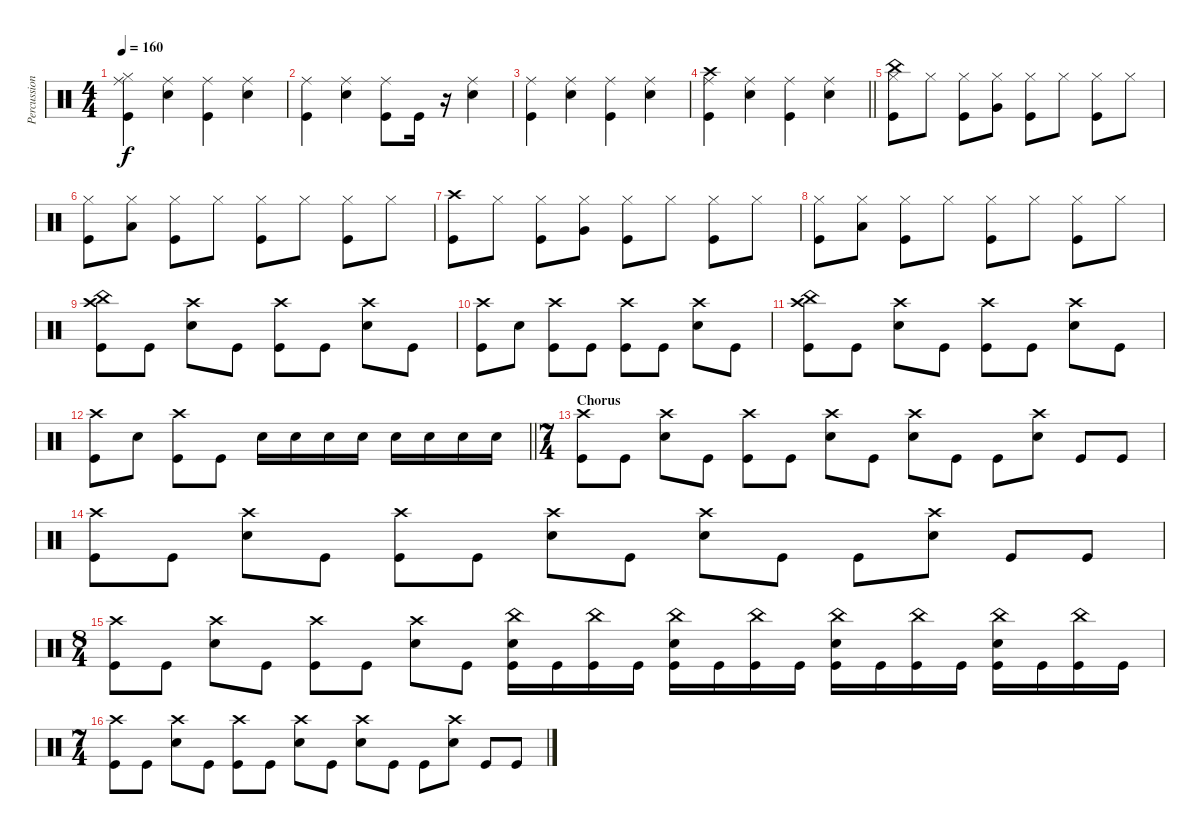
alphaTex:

\track ("Percussion" "Percussion") {instrument percussion}
\staff {score}
\articulation defaults
\ts (4 4)
\tempo 160
\clef neutral
\ks c
("Kick (hit)" "Ride (middle)" "Hi-Hat (closed)").4{dy f} ("Ride (middle)" "Snare (hit) 2").4 ("Ride (middle)" "Kick (hit)").4 ("Ride (middle)" "Snare (hit) 2").4 |
("Kick (hit)" "Ride (middle)").4 ("Ride (middle)" "Snare (hit) 2").4 ("Ride (middle)" "Kick (hit)").8 "Kick (hit)".16 r.16 ("Snare (hit) 2" "Ride (middle)").4 |
("Kick (hit)" "Ride (middle)").4 ("Ride (middle)" "Snare (hit) 2").4 ("Ride (middle)" "Kick (hit)").4 ("Ride (middle)" "Snare (hit) 2").4 |
\barLineRight lightlight
("Kick (hit)" "Crash high (hit)" "Ride (middle)").4 ("Ride (middle)" "Snare (hit) 2").4 ("Ride (middle)" "Kick (hit)").4 ("Ride (middle)" "Snare (hit) 2").4 |
("Kick (hit)" "Hi-Hat (closed)" "China (hit)").8 "Hi-Hat (closed)".8 ("Hi-Hat (closed)" "Kick (hit)").8 ("Hi-Hat (closed)" "Very Low Tom (hit)").8 ("Hi-Hat (closed)" "Kick (hit)").8 "Hi-Hat (closed)".8 ("Hi-Hat (closed)" "Kick (hit)").8 "Hi-Hat (closed)".8 |
("Kick (hit)" "Hi-Hat (closed)").8 ("Low Floor Tom (hit)" "Hi-Hat (closed)").8 ("Kick (hit)" "Hi-Hat (closed)").8 "Hi-Hat (closed)".8 ("Hi-Hat (closed)" "Kick (hit)").8 "Hi-Hat (closed)".8 ("Kick (hit)" "Hi-Hat (closed)").8 "Hi-Hat (closed)".8 |
("Kick (hit)" "Crash high (hit)").8 "Hi-Hat (closed)".8 ("Hi-Hat (closed)" "Kick (hit)").8 ("Hi-Hat (closed)" "Very Low Tom (hit)").8 ("Hi-Hat (closed)" "Kick (hit)").8 "Hi-Hat (closed)".8 ("Hi-Hat (closed)" "Kick (hit)").8 "Hi-Hat (closed)".8 |
("Kick (hit)" "Hi-Hat (closed)").8 ("Low Floor Tom (hit)" "Hi-Hat (closed)").8 ("Kick (hit)" "Hi-Hat (closed)").8 "Hi-Hat (closed)".8 ("Hi-Hat (closed)" "Kick (hit)").8 "Hi-Hat (closed)".8 ("Kick (hit)" "Hi-Hat (closed)").8 "Hi-Hat (closed)".8 |
("Crash high (hit)" "Kick (hit)" "China (hit)").8 "Kick (hit)".8 ("Snare (hit) 2" "Crash high (hit)").8 "Kick (hit)".8 ("Kick (hit)" "Crash high (hit)").8 "Kick (hit)".8 ("Snare (hit) 2" "Crash high (hit)").8 "Kick (hit)".8 |
("Kick (hit)" "Crash high (hit)").8 "Snare (hit) 2".8 ("Kick (hit)" "Crash high (hit)").8 "Kick (hit)".8 ("Kick (hit)" "Crash high (hit)").8 "Kick (hit)".8 ("Snare (hit) 2" "Crash high (hit)").8 "Kick (hit)".8 |
("Crash high (hit)" "Kick (hit)" "China (hit)").8 "Kick (hit)".8 ("Snare (hit) 2" "Crash high (hit)").8 "Kick (hit)".8 ("Kick (hit)" "Crash high (hit)").8 "Kick (hit)".8 ("Snare (hit) 2" "Crash high (hit)").8 "Kick (hit)".8 |
\barLineRight lightlight
("Kick (hit)" "Crash high (hit)").8 "Snare (hit) 2".8 ("Kick (hit)" "Crash high (hit)").8 "Kick (hit)".8 "Snare (hit) 2".16 "Snare (hit) 2".16 "Snare (hit) 2".16 "Snare (hit) 2".16 "Snare (hit) 2".16 "Snare (hit) 2".16 "Snare (hit) 2".16 "Snare (hit) 2".16 |
\ts (7 4)
\section ("" "Chorus")
("Kick (hit)" "Crash high (hit)").8 "Kick (hit)".8 ("Snare (hit) 2" "Crash high (hit)").8 "Kick (hit)".8 ("Kick (hit)" "Crash high (hit)").8 "Kick (hit)".8 ("Snare (hit) 2" "Crash high (hit)").8 "Kick (hit)".8 ("Snare (hit) 2" "Crash high (hit)").8 "Kick (hit)".8 "Kick (hit)".8 ("Snare (hit) 2" "Crash high (hit)").8 "Kick (hit)".8 "Kick (hit)".8 |
("Kick (hit)" "Crash high (hit)").8 "Kick (hit)".8 ("Snare (hit) 2" "Crash high (hit)").8 "Kick (hit)".8 ("Kick (hit)" "Crash high (hit)").8 "Kick (hit)".8 ("Snare (hit) 2" "Crash high (hit)").8 "Kick (hit)".8 ("Snare (hit) 2" "Crash high (hit)").8 "Kick (hit)".8 "Kick (hit)".8 ("Snare (hit) 2" "Crash high (hit)").8 "Kick (hit)".8 "Kick (hit)".8 |
\ts (8 4)
("Kick (hit)" "Crash high (hit)").8 "Kick (hit)".8 ("Snare (hit) 2" "Crash high (hit)").8 "Kick (hit)".8 ("Kick (hit)" "Crash high (hit)").8 "Kick (hit)".8 ("Snare (hit) 2" "Crash high (hit)").8 "Kick (hit)".8 ("Snare (hit) 2" "China (hit)" "Kick (hit)").16 "Kick (hit)".16 ("Kick (hit)" "China (hit)").16 "Kick (hit)".16 ("Kick (hit)" "China (hit)" "Snare (hit) 2").16 "Kick (hit)".16 ("Kick (hit)" "China (hit)").16 "Kick (hit)".16 ("Kick (hit)" "China (hit)" "Snare (hit) 2").16 "Kick (hit)".16 ("Kick (hit)" "China (hit)").16 "Kick (hit)".16 ("Kick (hit)" "China (hit)" "Snare (hit) 2").16 "Kick (hit)".16 ("Kick (hit)" "China (hit)").16 "Kick (hit)".16 |
\ts (7 4)
("Kick (hit)" "Crash high (hit)").8 "Kick (hit)".8 ("Snare (hit) 2" "Crash high (hit)").8 "Kick (hit)".8 ("Kick (hit)" "Crash high (hit)").8 "Kick (hit)".8 ("Snare (hit) 2" "Crash high (hit)").8 "Kick (hit)".8 ("Snare (hit) 2" "Crash high (hit)").8 "Kick (hit)".8 "Kick (hit)".8 ("Snare (hit) 2" "Crash high (hit)").8 "Kick (hit)".8 "Kick (hit)".8
